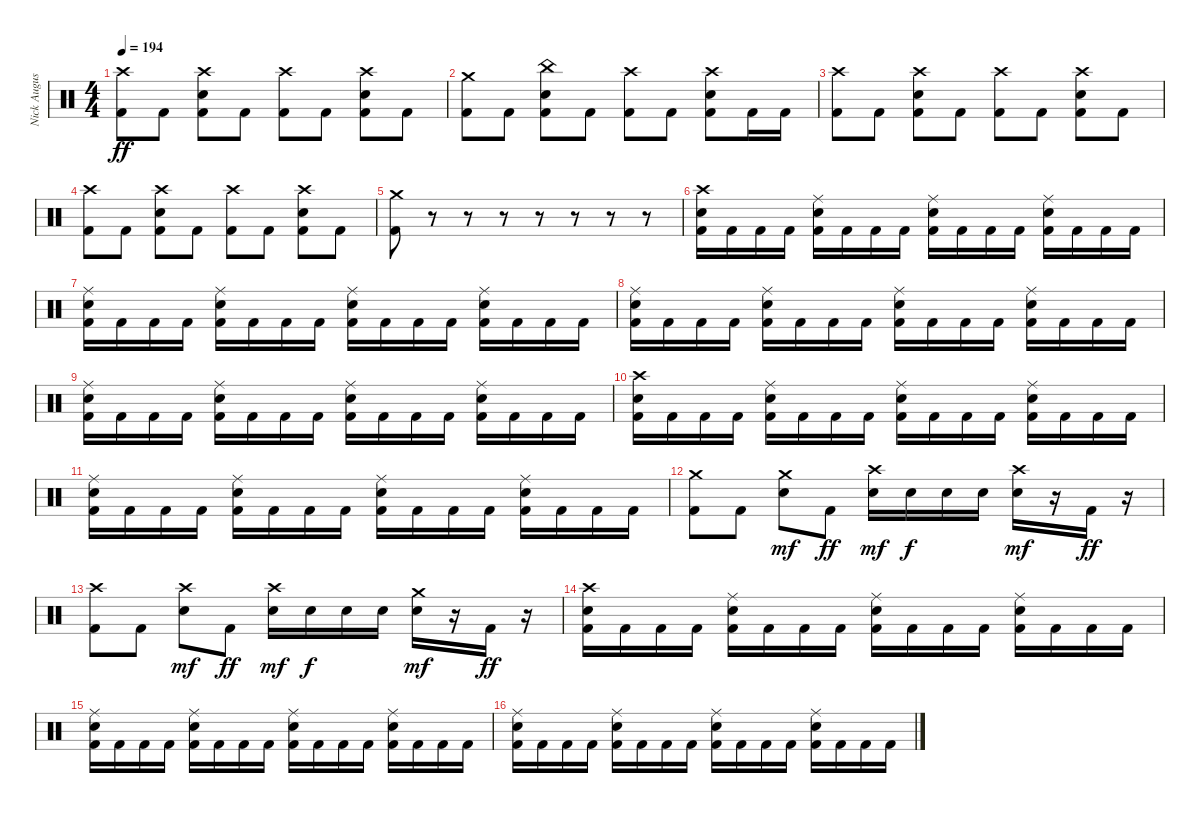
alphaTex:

\track ("Nick Augusto" "Nick Augus") {instrument percussion}
\staff {score}
\articulation defaults
\ts (4 4)
\tempo 194
\clef neutral
\ks c
("Crash high (hit)" "Kick (hit) 2").8{dy ff} "Kick (hit) 2".8 ("Crash high (hit)" "Electric Snare (hit)" "Kick (hit) 2").8 "Kick (hit) 2".8 ("Crash high (hit)" "Kick (hit) 2").8 "Kick (hit) 2".8 ("Crash high (hit)" "Electric Snare (hit)" "Kick (hit) 2").8 "Kick (hit) 2".8 |
("Crash medium (hit)" "Kick (hit) 2").8 "Kick (hit) 2".8 ("China (hit)" "Electric Snare (hit)" "Kick (hit) 2").8 "Kick (hit) 2".8 ("Crash high (hit)" "Kick (hit) 2").8 "Kick (hit) 2".8 ("Crash high (hit)" "Electric Snare (hit)" "Kick (hit) 2").8 "Kick (hit) 2".16 "Kick (hit) 2".16 |
("Crash high (hit)" "Kick (hit) 2").8 "Kick (hit) 2".8 ("Crash high (hit)" "Electric Snare (hit)" "Kick (hit) 2").8 "Kick (hit) 2".8 ("Crash high (hit)" "Kick (hit) 2").8 "Kick (hit) 2".8 ("Crash high (hit)" "Electric Snare (hit)" "Kick (hit) 2").8 "Kick (hit) 2".8 |
("Crash high (hit)" "Kick (hit) 2").8 "Kick (hit) 2".8 ("Crash high (hit)" "Electric Snare (hit)" "Kick (hit) 2").8 "Kick (hit) 2".8 ("Crash high (hit)" "Kick (hit) 2").8 "Kick (hit) 2".8 ("Crash high (hit)" "Electric Snare (hit)" "Kick (hit) 2").8 "Kick (hit) 2".8 |
("Crash medium (hit)" "Kick (hit) 2").8 r.8 r.8 r.8 r.8 r.8 r.8 r.8 |
("Crash high (hit)" "Electric Snare (hit)" "Kick (hit) 2").16 "Kick (hit) 2".16 "Kick (hit) 2".16 "Kick (hit) 2".16 ("Ride (middle)" "Electric Snare (hit)" "Kick (hit) 2").16 "Kick (hit) 2".16 "Kick (hit) 2".16 "Kick (hit) 2".16 ("Ride (middle)" "Electric Snare (hit)" "Kick (hit) 2").16 "Kick (hit) 2".16 "Kick (hit) 2".16 "Kick (hit) 2".16 ("Ride (middle)" "Electric Snare (hit)" "Kick (hit) 2").16 "Kick (hit) 2".16 "Kick (hit) 2".16 "Kick (hit) 2".16 |
("Ride (middle)" "Electric Snare (hit)" "Kick (hit) 2").16 "Kick (hit) 2".16 "Kick (hit) 2".16 "Kick (hit) 2".16 ("Ride (middle)" "Electric Snare (hit)" "Kick (hit) 2").16 "Kick (hit) 2".16 "Kick (hit) 2".16 "Kick (hit) 2".16 ("Ride (middle)" "Electric Snare (hit)" "Kick (hit) 2").16 "Kick (hit) 2".16 "Kick (hit) 2".16 "Kick (hit) 2".16 ("Ride (middle)" "Electric Snare (hit)" "Kick (hit) 2").16 "Kick (hit) 2".16 "Kick (hit) 2".16 "Kick (hit) 2".16 |
("Ride (middle)" "Electric Snare (hit)" "Kick (hit) 2").16 "Kick (hit) 2".16 "Kick (hit) 2".16 "Kick (hit) 2".16 ("Ride (middle)" "Electric Snare (hit)" "Kick (hit) 2").16 "Kick (hit) 2".16 "Kick (hit) 2".16 "Kick (hit) 2".16 ("Ride (middle)" "Electric Snare (hit)" "Kick (hit) 2").16 "Kick (hit) 2".16 "Kick (hit) 2".16 "Kick (hit) 2".16 ("Ride (middle)" "Electric Snare (hit)" "Kick (hit) 2").16 "Kick (hit) 2".16 "Kick (hit) 2".16 "Kick (hit) 2".16 |
("Ride (middle)" "Electric Snare (hit)" "Kick (hit) 2").16 "Kick (hit) 2".16 "Kick (hit) 2".16 "Kick (hit) 2".16 ("Ride (middle)" "Electric Snare (hit)" "Kick (hit) 2").16 "Kick (hit) 2".16 "Kick (hit) 2".16 "Kick (hit) 2".16 ("Ride (middle)" "Electric Snare (hit)" "Kick (hit) 2").16 "Kick (hit) 2".16 "Kick (hit) 2".16 "Kick (hit) 2".16 ("Ride (middle)" "Electric Snare (hit)" "Kick (hit) 2").16 "Kick (hit) 2".16 "Kick (hit) 2".16 "Kick (hit) 2".16 |
("Crash high (hit)" "Electric Snare (hit)" "Kick (hit) 2").16 "Kick (hit) 2".16 "Kick (hit) 2".16 "Kick (hit) 2".16 ("Ride (middle)" "Electric Snare (hit)" "Kick (hit) 2").16 "Kick (hit) 2".16 "Kick (hit) 2".16 "Kick (hit) 2".16 ("Ride (middle)" "Electric Snare (hit)" "Kick (hit) 2").16 "Kick (hit) 2".16 "Kick (hit) 2".16 "Kick (hit) 2".16 ("Ride (middle)" "Electric Snare (hit)" "Kick (hit) 2").16 "Kick (hit) 2".16 "Kick (hit) 2".16 "Kick (hit) 2".16 |
("Ride (middle)" "Electric Snare (hit)" "Kick (hit) 2").16 "Kick (hit) 2".16 "Kick (hit) 2".16 "Kick (hit) 2".16 ("Ride (middle)" "Electric Snare (hit)" "Kick (hit) 2").16 "Kick (hit) 2".16 "Kick (hit) 2".16 "Kick (hit) 2".16 ("Ride (middle)" "Electric Snare (hit)" "Kick (hit) 2").16 "Kick (hit) 2".16 "Kick (hit) 2".16 "Kick (hit) 2".16 ("Ride (middle)" "Electric Snare (hit)" "Kick (hit) 2").16 "Kick (hit) 2".16 "Kick (hit) 2".16 "Kick (hit) 2".16 |
("Crash medium (hit)" "Kick (hit) 2").8 "Kick (hit) 2".8 ("Crash medium (hit)" "Electric Snare (hit)").8{dy mf} "Kick (hit) 2".8{dy ff} ("Crash high (hit)" "Electric Snare (hit)").16{dy mf} "Electric Snare (hit)".16{dy f} "Electric Snare (hit)".16 "Electric Snare (hit)".16 ("Crash high (hit)" "Electric Snare (hit)").16{dy mf} r.16 "Kick (hit) 2".16{dy ff} r.16 |
("Crash high (hit)" "Kick (hit) 2").8 "Kick (hit) 2".8 ("Crash high (hit)" "Electric Snare (hit)").8{dy mf} "Kick (hit) 2".8{dy ff} ("Crash high (hit)" "Electric Snare (hit)").16{dy mf} "Electric Snare (hit)".16{dy f} "Electric Snare (hit)".16 "Electric Snare (hit)".16 ("Crash medium (hit)" "Electric Snare (hit)").16{dy mf} r.16 "Kick (hit) 2".16{dy ff} r.16 |
("Crash high (hit)" "Electric Snare (hit)" "Kick (hit) 2").16 "Kick (hit) 2".16 "Kick (hit) 2".16 "Kick (hit) 2".16 ("Ride (middle)" "Electric Snare (hit)" "Kick (hit) 2").16 "Kick (hit) 2".16 "Kick (hit) 2".16 "Kick (hit) 2".16 ("Ride (middle)" "Electric Snare (hit)" "Kick (hit) 2").16 "Kick (hit) 2".16 "Kick (hit) 2".16 "Kick (hit) 2".16 ("Ride (middle)" "Electric Snare (hit)" "Kick (hit) 2").16 "Kick (hit) 2".16 "Kick (hit) 2".16 "Kick (hit) 2".16 |
("Ride (middle)" "Electric Snare (hit)" "Kick (hit) 2").16 "Kick (hit) 2".16 "Kick (hit) 2".16 "Kick (hit) 2".16 ("Ride (middle)" "Electric Snare (hit)" "Kick (hit) 2").16 "Kick (hit) 2".16 "Kick (hit) 2".16 "Kick (hit) 2".16 ("Ride (middle)" "Electric Snare (hit)" "Kick (hit) 2").16 "Kick (hit) 2".16 "Kick (hit) 2".16 "Kick (hit) 2".16 ("Ride (middle)" "Electric Snare (hit)" "Kick (hit) 2").16 "Kick (hit) 2".16 "Kick (hit) 2".16 "Kick (hit) 2".16 |
("Ride (middle)" "Electric Snare (hit)" "Kick (hit) 2").16 "Kick (hit) 2".16 "Kick (hit) 2".16 "Kick (hit) 2".16 ("Ride (middle)" "Electric Snare (hit)" "Kick (hit) 2").16 "Kick (hit) 2".16 "Kick (hit) 2".16 "Kick (hit) 2".16 ("Ride (middle)" "Electric Snare (hit)" "Kick (hit) 2").16 "Kick (hit) 2".16 "Kick (hit) 2".16 "Kick (hit) 2".16 ("Ride (middle)" "Electric Snare (hit)" "Kick (hit) 2").16 "Kick (hit) 2".16 "Kick (hit) 2".16 "Kick (hit) 2".16
